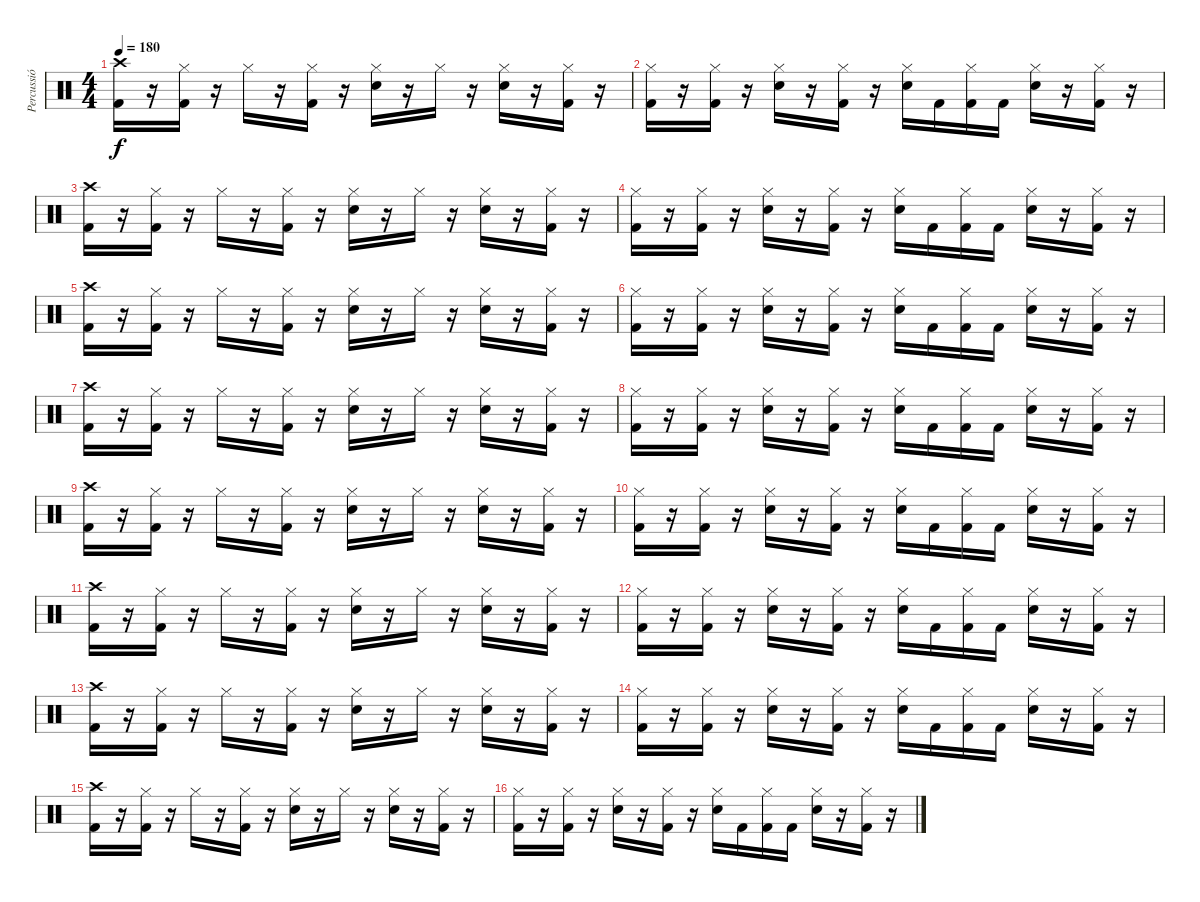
\track ("Percussió" "Percussió") {instrument percussion}
\staff {score}
\articulation defaults
\ts (4 4)
\tempo 180
\clef neutral
\ks c
("Crash high (hit)" "Kick (hit) 2").16{dy f} r.16 ("Hi-Hat (closed)" "Kick (hit) 2").16 r.16 "Hi-Hat (closed)".16 r.16 ("Hi-Hat (closed)" "Kick (hit) 2").16 r.16 ("Hi-Hat (closed)" "Electric Snare (hit)").16 r.16 "Hi-Hat (closed)".16 r.16 ("Hi-Hat (closed)" "Electric Snare (hit)").16 r.16 ("Hi-Hat (closed)" "Kick (hit) 2").16 r.16 |
("Hi-Hat (closed)" "Kick (hit) 2").16 r.16 ("Hi-Hat (closed)" "Kick (hit) 2").16 r.16 ("Hi-Hat (closed)" "Electric Snare (hit)").16 r.16 ("Hi-Hat (closed)" "Kick (hit) 2").16 r.16 ("Hi-Hat (closed)" "Electric Snare (hit)").16 "Kick (hit) 2".16 ("Hi-Hat (closed)" "Kick (hit) 2").16 "Kick (hit) 2".16 ("Hi-Hat (closed)" "Electric Snare (hit)").16 r.16 ("Hi-Hat (closed)" "Kick (hit) 2").16 r.16 |
("Crash high (hit)" "Kick (hit) 2").16 r.16 ("Hi-Hat (closed)" "Kick (hit) 2").16 r.16 "Hi-Hat (closed)".16 r.16 ("Hi-Hat (closed)" "Kick (hit) 2").16 r.16 ("Hi-Hat (closed)" "Electric Snare (hit)").16 r.16 "Hi-Hat (closed)".16 r.16 ("Hi-Hat (closed)" "Electric Snare (hit)").16 r.16 ("Hi-Hat (closed)" "Kick (hit) 2").16 r.16 |
("Hi-Hat (closed)" "Kick (hit) 2").16 r.16 ("Hi-Hat (closed)" "Kick (hit) 2").16 r.16 ("Hi-Hat (closed)" "Electric Snare (hit)").16 r.16 ("Hi-Hat (closed)" "Kick (hit) 2").16 r.16 ("Hi-Hat (closed)" "Electric Snare (hit)").16 "Kick (hit) 2".16 ("Hi-Hat (closed)" "Kick (hit) 2").16 "Kick (hit) 2".16 ("Hi-Hat (closed)" "Electric Snare (hit)").16 r.16 ("Hi-Hat (closed)" "Kick (hit) 2").16 r.16 |
("Crash high (hit)" "Kick (hit) 2").16 r.16 ("Hi-Hat (closed)" "Kick (hit) 2").16 r.16 "Hi-Hat (closed)".16 r.16 ("Hi-Hat (closed)" "Kick (hit) 2").16 r.16 ("Hi-Hat (closed)" "Electric Snare (hit)").16 r.16 "Hi-Hat (closed)".16 r.16 ("Hi-Hat (closed)" "Electric Snare (hit)").16 r.16 ("Hi-Hat (closed)" "Kick (hit) 2").16 r.16 |
("Hi-Hat (closed)" "Kick (hit) 2").16 r.16 ("Hi-Hat (closed)" "Kick (hit) 2").16 r.16 ("Hi-Hat (closed)" "Electric Snare (hit)").16 r.16 ("Hi-Hat (closed)" "Kick (hit) 2").16 r.16 ("Hi-Hat (closed)" "Electric Snare (hit)").16 "Kick (hit) 2".16 ("Hi-Hat (closed)" "Kick (hit) 2").16 "Kick (hit) 2".16 ("Hi-Hat (closed)" "Electric Snare (hit)").16 r.16 ("Hi-Hat (closed)" "Kick (hit) 2").16 r.16 |
("Crash high (hit)" "Kick (hit) 2").16 r.16 ("Hi-Hat (closed)" "Kick (hit) 2").16 r.16 "Hi-Hat (closed)".16 r.16 ("Hi-Hat (closed)" "Kick (hit) 2").16 r.16 ("Hi-Hat (closed)" "Electric Snare (hit)").16 r.16 "Hi-Hat (closed)".16 r.16 ("Hi-Hat (closed)" "Electric Snare (hit)").16 r.16 ("Hi-Hat (closed)" "Kick (hit) 2").16 r.16 |
("Hi-Hat (closed)" "Kick (hit) 2").16 r.16 ("Hi-Hat (closed)" "Kick (hit) 2").16 r.16 ("Hi-Hat (closed)" "Electric Snare (hit)").16 r.16 ("Hi-Hat (closed)" "Kick (hit) 2").16 r.16 ("Hi-Hat (closed)" "Electric Snare (hit)").16 "Kick (hit) 2".16 ("Hi-Hat (closed)" "Kick (hit) 2").16 "Kick (hit) 2".16 ("Hi-Hat (closed)" "Electric Snare (hit)").16 r.16 ("Hi-Hat (closed)" "Kick (hit) 2").16 r.16 |
("Crash high (hit)" "Kick (hit) 2").16 r.16 ("Hi-Hat (closed)" "Kick (hit) 2").16 r.16 "Hi-Hat (closed)".16 r.16 ("Hi-Hat (closed)" "Kick (hit) 2").16 r.16 ("Hi-Hat (closed)" "Electric Snare (hit)").16 r.16 "Hi-Hat (closed)".16 r.16 ("Hi-Hat (closed)" "Electric Snare (hit)").16 r.16 ("Hi-Hat (closed)" "Kick (hit) 2").16 r.16 |
("Hi-Hat (closed)" "Kick (hit) 2").16 r.16 ("Hi-Hat (closed)" "Kick (hit) 2").16 r.16 ("Hi-Hat (closed)" "Electric Snare (hit)").16 r.16 ("Hi-Hat (closed)" "Kick (hit) 2").16 r.16 ("Hi-Hat (closed)" "Electric Snare (hit)").16 "Kick (hit) 2".16 ("Hi-Hat (closed)" "Kick (hit) 2").16 "Kick (hit) 2".16 ("Hi-Hat (closed)" "Electric Snare (hit)").16 r.16 ("Hi-Hat (closed)" "Kick (hit) 2").16 r.16 |
("Crash high (hit)" "Kick (hit) 2").16 r.16 ("Hi-Hat (closed)" "Kick (hit) 2").16 r.16 "Hi-Hat (closed)".16 r.16 ("Hi-Hat (closed)" "Kick (hit) 2").16 r.16 ("Hi-Hat (closed)" "Electric Snare (hit)").16 r.16 "Hi-Hat (closed)".16 r.16 ("Hi-Hat (closed)" "Electric Snare (hit)").16 r.16 ("Hi-Hat (closed)" "Kick (hit) 2").16 r.16 |
("Hi-Hat (closed)" "Kick (hit) 2").16 r.16 ("Hi-Hat (closed)" "Kick (hit) 2").16 r.16 ("Hi-Hat (closed)" "Electric Snare (hit)").16 r.16 ("Hi-Hat (closed)" "Kick (hit) 2").16 r.16 ("Hi-Hat (closed)" "Electric Snare (hit)").16 "Kick (hit) 2".16 ("Hi-Hat (closed)" "Kick (hit) 2").16 "Kick (hit) 2".16 ("Hi-Hat (closed)" "Electric Snare (hit)").16 r.16 ("Hi-Hat (closed)" "Kick (hit) 2").16 r.16 |
("Crash high (hit)" "Kick (hit) 2").16 r.16 ("Hi-Hat (closed)" "Kick (hit) 2").16 r.16 "Hi-Hat (closed)".16 r.16 ("Hi-Hat (closed)" "Kick (hit) 2").16 r.16 ("Hi-Hat (closed)" "Electric Snare (hit)").16 r.16 "Hi-Hat (closed)".16 r.16 ("Hi-Hat (closed)" "Electric Snare (hit)").16 r.16 ("Hi-Hat (closed)" "Kick (hit) 2").16 r.16 |
("Hi-Hat (closed)" "Kick (hit) 2").16 r.16 ("Hi-Hat (closed)" "Kick (hit) 2").16 r.16 ("Hi-Hat (closed)" "Electric Snare (hit)").16 r.16 ("Hi-Hat (closed)" "Kick (hit) 2").16 r.16 ("Hi-Hat (closed)" "Electric Snare (hit)").16 "Kick (hit) 2".16 ("Hi-Hat (closed)" "Kick (hit) 2").16 "Kick (hit) 2".16 ("Hi-Hat (closed)" "Electric Snare (hit)").16 r.16 ("Hi-Hat (closed)" "Kick (hit) 2").16 r.16 |
("Crash high (hit)" "Kick (hit) 2").16 r.16 ("Hi-Hat (closed)" "Kick (hit) 2").16 r.16 "Hi-Hat (closed)".16 r.16 ("Hi-Hat (closed)" "Kick (hit) 2").16 r.16 ("Hi-Hat (closed)" "Electric Snare (hit)").16 r.16 "Hi-Hat (closed)".16 r.16 ("Hi-Hat (closed)" "Electric Snare (hit)").16 r.16 ("Hi-Hat (closed)" "Kick (hit) 2").16 r.16 |
("Hi-Hat (closed)" "Kick (hit) 2").16 r.16 ("Hi-Hat (closed)" "Kick (hit) 2").16 r.16 ("Hi-Hat (closed)" "Electric Snare (hit)").16 r.16 ("Hi-Hat (closed)" "Kick (hit) 2").16 r.16 ("Hi-Hat (closed)" "Electric Snare (hit)").16 "Kick (hit) 2".16 ("Hi-Hat (closed)" "Kick (hit) 2").16 "Kick (hit) 2".16 ("Hi-Hat (closed)" "Electric Snare (hit)").16 r.16 ("Hi-Hat (closed)" "Kick (hit) 2").16 r.16
